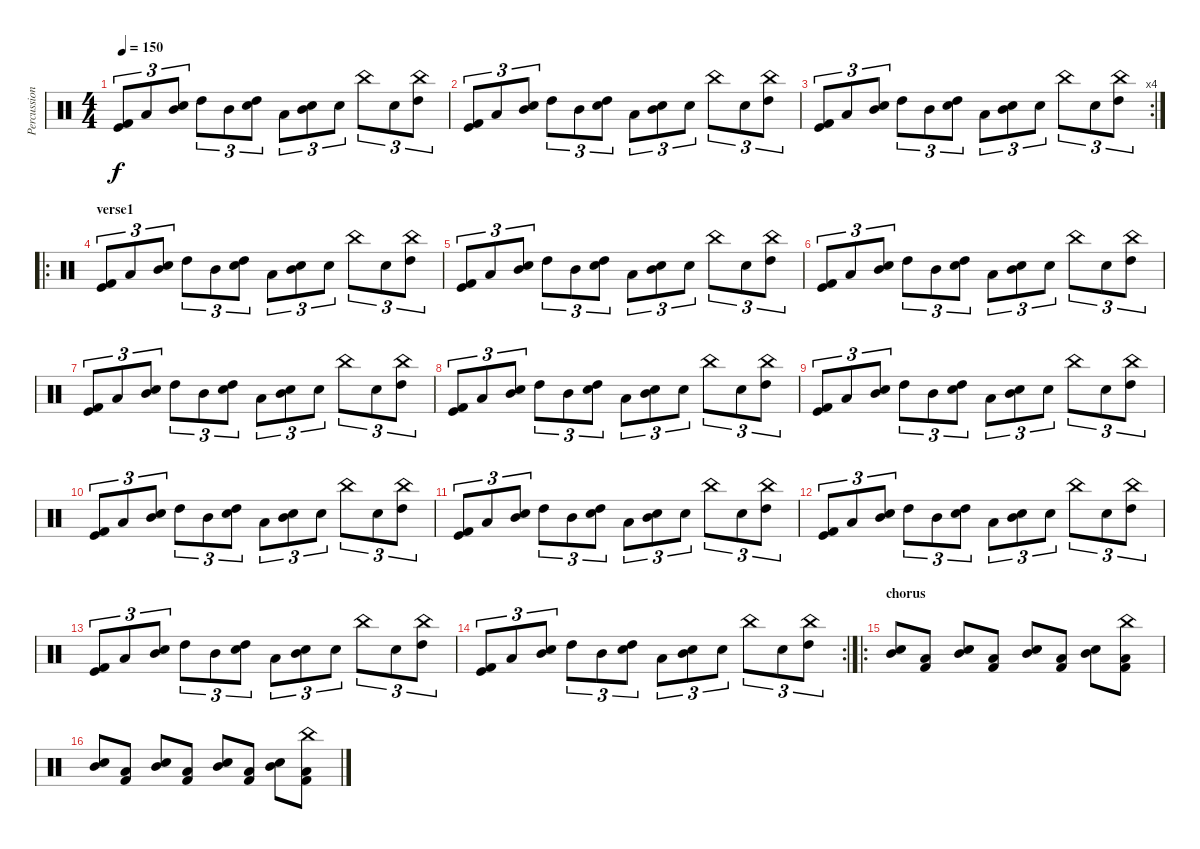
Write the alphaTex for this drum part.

\track ("Percussion" "Percussion") {instrument percussion}
\staff {score}
\articulation defaults
\ts (4 4)
\tempo 150
\clef neutral
\ks c
("Kick (hit) 2" "Kick (hit)").8{tu (3 2) dy f} "Low Tom (hit)".8{tu (3 2)} ("Mid Tom (hit)" "Snare (hit) 2").8{tu (3 2)} "High Tom (hit)".8{tu (3 2)} "Mid Tom (hit)".8{tu (3 2)} ("High Tom (hit)" "Snare (hit) 2").8{tu (3 2)} "Low Tom (hit)".8{tu (3 2)} ("Mid Tom (hit)" "Snare (hit) 2").8{tu (3 2)} "Snare (hit) 2".8{tu (3 2)} "China (hit)".8{tu (3 2)} "Snare (hit) 2".8{tu (3 2)} ("High Tom (hit)" "China (hit)").8{tu (3 2)} |
("Kick (hit) 2" "Kick (hit)").8{tu (3 2)} "Low Tom (hit)".8{tu (3 2)} ("Mid Tom (hit)" "Snare (hit) 2").8{tu (3 2)} "High Tom (hit)".8{tu (3 2)} "Mid Tom (hit)".8{tu (3 2)} ("High Tom (hit)" "Snare (hit) 2").8{tu (3 2)} "Low Tom (hit)".8{tu (3 2)} ("Mid Tom (hit)" "Snare (hit) 2").8{tu (3 2)} "Snare (hit) 2".8{tu (3 2)} "China (hit)".8{tu (3 2)} "Snare (hit) 2".8{tu (3 2)} ("High Tom (hit)" "China (hit)").8{tu (3 2)} |
\rc 4
("Kick (hit) 2" "Kick (hit)").8{tu (3 2)} "Low Tom (hit)".8{tu (3 2)} ("Mid Tom (hit)" "Snare (hit) 2").8{tu (3 2)} "High Tom (hit)".8{tu (3 2)} "Mid Tom (hit)".8{tu (3 2)} ("High Tom (hit)" "Snare (hit) 2").8{tu (3 2)} "Low Tom (hit)".8{tu (3 2)} ("Mid Tom (hit)" "Snare (hit) 2").8{tu (3 2)} "Snare (hit) 2".8{tu (3 2)} "China (hit)".8{tu (3 2)} "Snare (hit) 2".8{tu (3 2)} ("High Tom (hit)" "China (hit)").8{tu (3 2)} |
\ro
\section ("" "verse1")
("Kick (hit) 2" "Kick (hit)").8{tu (3 2)} "Low Tom (hit)".8{tu (3 2)} ("Mid Tom (hit)" "Snare (hit) 2").8{tu (3 2)} "High Tom (hit)".8{tu (3 2)} "Mid Tom (hit)".8{tu (3 2)} ("High Tom (hit)" "Snare (hit) 2").8{tu (3 2)} "Low Tom (hit)".8{tu (3 2)} ("Mid Tom (hit)" "Snare (hit) 2").8{tu (3 2)} "Snare (hit) 2".8{tu (3 2)} "China (hit)".8{tu (3 2)} "Snare (hit) 2".8{tu (3 2)} ("High Tom (hit)" "China (hit)").8{tu (3 2)} |
("Kick (hit) 2" "Kick (hit)").8{tu (3 2)} "Low Tom (hit)".8{tu (3 2)} ("Mid Tom (hit)" "Snare (hit) 2").8{tu (3 2)} "High Tom (hit)".8{tu (3 2)} "Mid Tom (hit)".8{tu (3 2)} ("High Tom (hit)" "Snare (hit) 2").8{tu (3 2)} "Low Tom (hit)".8{tu (3 2)} ("Mid Tom (hit)" "Snare (hit) 2").8{tu (3 2)} "Snare (hit) 2".8{tu (3 2)} "China (hit)".8{tu (3 2)} "Snare (hit) 2".8{tu (3 2)} ("High Tom (hit)" "China (hit)").8{tu (3 2)} |
("Kick (hit) 2" "Kick (hit)").8{tu (3 2)} "Low Tom (hit)".8{tu (3 2)} ("Mid Tom (hit)" "Snare (hit) 2").8{tu (3 2)} "High Tom (hit)".8{tu (3 2)} "Mid Tom (hit)".8{tu (3 2)} ("High Tom (hit)" "Snare (hit) 2").8{tu (3 2)} "Low Tom (hit)".8{tu (3 2)} ("Mid Tom (hit)" "Snare (hit) 2").8{tu (3 2)} "Snare (hit) 2".8{tu (3 2)} "China (hit)".8{tu (3 2)} "Snare (hit) 2".8{tu (3 2)} ("High Tom (hit)" "China (hit)").8{tu (3 2)} |
("Kick (hit) 2" "Kick (hit)").8{tu (3 2)} "Low Tom (hit)".8{tu (3 2)} ("Mid Tom (hit)" "Snare (hit) 2").8{tu (3 2)} "High Tom (hit)".8{tu (3 2)} "Mid Tom (hit)".8{tu (3 2)} ("High Tom (hit)" "Snare (hit) 2").8{tu (3 2)} "Low Tom (hit)".8{tu (3 2)} ("Mid Tom (hit)" "Snare (hit) 2").8{tu (3 2)} "Snare (hit) 2".8{tu (3 2)} "China (hit)".8{tu (3 2)} "Snare (hit) 2".8{tu (3 2)} ("High Tom (hit)" "China (hit)").8{tu (3 2)} |
("Kick (hit) 2" "Kick (hit)").8{tu (3 2)} "Low Tom (hit)".8{tu (3 2)} ("Mid Tom (hit)" "Snare (hit) 2").8{tu (3 2)} "High Tom (hit)".8{tu (3 2)} "Mid Tom (hit)".8{tu (3 2)} ("High Tom (hit)" "Snare (hit) 2").8{tu (3 2)} "Low Tom (hit)".8{tu (3 2)} ("Mid Tom (hit)" "Snare (hit) 2").8{tu (3 2)} "Snare (hit) 2".8{tu (3 2)} "China (hit)".8{tu (3 2)} "Snare (hit) 2".8{tu (3 2)} ("High Tom (hit)" "China (hit)").8{tu (3 2)} |
("Kick (hit) 2" "Kick (hit)").8{tu (3 2)} "Low Tom (hit)".8{tu (3 2)} ("Mid Tom (hit)" "Snare (hit) 2").8{tu (3 2)} "High Tom (hit)".8{tu (3 2)} "Mid Tom (hit)".8{tu (3 2)} ("High Tom (hit)" "Snare (hit) 2").8{tu (3 2)} "Low Tom (hit)".8{tu (3 2)} ("Mid Tom (hit)" "Snare (hit) 2").8{tu (3 2)} "Snare (hit) 2".8{tu (3 2)} "China (hit)".8{tu (3 2)} "Snare (hit) 2".8{tu (3 2)} ("High Tom (hit)" "China (hit)").8{tu (3 2)} |
("Kick (hit) 2" "Kick (hit)").8{tu (3 2)} "Low Tom (hit)".8{tu (3 2)} ("Mid Tom (hit)" "Snare (hit) 2").8{tu (3 2)} "High Tom (hit)".8{tu (3 2)} "Mid Tom (hit)".8{tu (3 2)} ("High Tom (hit)" "Snare (hit) 2").8{tu (3 2)} "Low Tom (hit)".8{tu (3 2)} ("Mid Tom (hit)" "Snare (hit) 2").8{tu (3 2)} "Snare (hit) 2".8{tu (3 2)} "China (hit)".8{tu (3 2)} "Snare (hit) 2".8{tu (3 2)} ("High Tom (hit)" "China (hit)").8{tu (3 2)} |
("Kick (hit) 2" "Kick (hit)").8{tu (3 2)} "Low Tom (hit)".8{tu (3 2)} ("Mid Tom (hit)" "Snare (hit) 2").8{tu (3 2)} "High Tom (hit)".8{tu (3 2)} "Mid Tom (hit)".8{tu (3 2)} ("High Tom (hit)" "Snare (hit) 2").8{tu (3 2)} "Low Tom (hit)".8{tu (3 2)} ("Mid Tom (hit)" "Snare (hit) 2").8{tu (3 2)} "Snare (hit) 2".8{tu (3 2)} "China (hit)".8{tu (3 2)} "Snare (hit) 2".8{tu (3 2)} ("High Tom (hit)" "China (hit)").8{tu (3 2)} |
("Kick (hit) 2" "Kick (hit)").8{tu (3 2)} "Low Tom (hit)".8{tu (3 2)} ("Mid Tom (hit)" "Snare (hit) 2").8{tu (3 2)} "High Tom (hit)".8{tu (3 2)} "Mid Tom (hit)".8{tu (3 2)} ("High Tom (hit)" "Snare (hit) 2").8{tu (3 2)} "Low Tom (hit)".8{tu (3 2)} ("Mid Tom (hit)" "Snare (hit) 2").8{tu (3 2)} "Snare (hit) 2".8{tu (3 2)} "China (hit)".8{tu (3 2)} "Snare (hit) 2".8{tu (3 2)} ("High Tom (hit)" "China (hit)").8{tu (3 2)} |
("Kick (hit) 2" "Kick (hit)").8{tu (3 2)} "Low Tom (hit)".8{tu (3 2)} ("Mid Tom (hit)" "Snare (hit) 2").8{tu (3 2)} "High Tom (hit)".8{tu (3 2)} "Mid Tom (hit)".8{tu (3 2)} ("High Tom (hit)" "Snare (hit) 2").8{tu (3 2)} "Low Tom (hit)".8{tu (3 2)} ("Mid Tom (hit)" "Snare (hit) 2").8{tu (3 2)} "Snare (hit) 2".8{tu (3 2)} "China (hit)".8{tu (3 2)} "Snare (hit) 2".8{tu (3 2)} ("High Tom (hit)" "China (hit)").8{tu (3 2)} |
\rc 2
("Kick (hit) 2" "Kick (hit)").8{tu (3 2)} "Low Tom (hit)".8{tu (3 2)} ("Mid Tom (hit)" "Snare (hit) 2").8{tu (3 2)} "High Tom (hit)".8{tu (3 2)} "Mid Tom (hit)".8{tu (3 2)} ("High Tom (hit)" "Snare (hit) 2").8{tu (3 2)} "Low Tom (hit)".8{tu (3 2)} ("Mid Tom (hit)" "Snare (hit) 2").8{tu (3 2)} "Snare (hit) 2".8{tu (3 2)} "China (hit)".8{tu (3 2)} "Snare (hit) 2".8{tu (3 2)} ("High Tom (hit)" "China (hit)").8{tu (3 2)} |
\ro
\section ("" "chorus")
("Snare (hit) 2" "Mid Tom (hit)").8 ("Low Tom (hit)" "Kick (hit) 2").8 ("Snare (hit) 2" "Mid Tom (hit)").8 ("Low Tom (hit)" "Kick (hit) 2").8 ("Snare (hit) 2" "Mid Tom (hit)").8 ("Low Tom (hit)" "Kick (hit) 2").8 ("Snare (hit) 2" "Mid Tom (hit)").8 ("China (hit)" "Low Tom (hit)" "Kick (hit) 2").8 |
("Snare (hit) 2" "Mid Tom (hit)").8 ("Low Tom (hit)" "Kick (hit) 2").8 ("Snare (hit) 2" "Mid Tom (hit)").8 ("Low Tom (hit)" "Kick (hit) 2").8 ("Snare (hit) 2" "Mid Tom (hit)").8 ("Low Tom (hit)" "Kick (hit) 2").8 ("Snare (hit) 2" "Mid Tom (hit)").8 ("China (hit)" "Low Tom (hit)" "Kick (hit) 2").8
